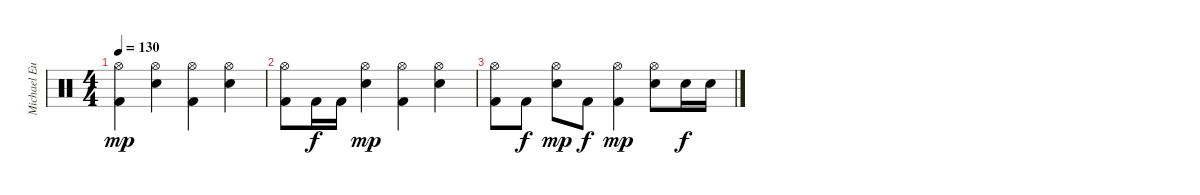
\track ("Michael Eurich" "Michael Eu") {instrument percussion}
\staff {score}
\articulation defaults
\ts (4 4)
\tempo 130
\clef neutral
\ks c
("Kick (hit) 2" "Hi-Hat (open)").4{dy mp} ("Hi-Hat (open)" "Snare (hit) 2").4 ("Kick (hit) 2" "Hi-Hat (open)").4 ("Hi-Hat (open)" "Snare (hit) 2").4 |
("Kick (hit) 2" "Hi-Hat (open)").8 "Kick (hit) 2".16{dy f} "Kick (hit) 2".16 ("Hi-Hat (open)" "Snare (hit) 2").4{dy mp} ("Kick (hit) 2" "Hi-Hat (open)").4 ("Hi-Hat (open)" "Snare (hit) 2").4 |
("Kick (hit) 2" "Hi-Hat (open)").8 "Kick (hit) 2".8{dy f} ("Hi-Hat (open)" "Snare (hit) 2").8{dy mp} "Kick (hit) 2".8{dy f} ("Kick (hit) 2" "Hi-Hat (open)").4{dy mp} ("Hi-Hat (open)" "Snare (hit) 2").8 "Snare (hit) 2".16{dy f} "Snare (hit) 2".16
